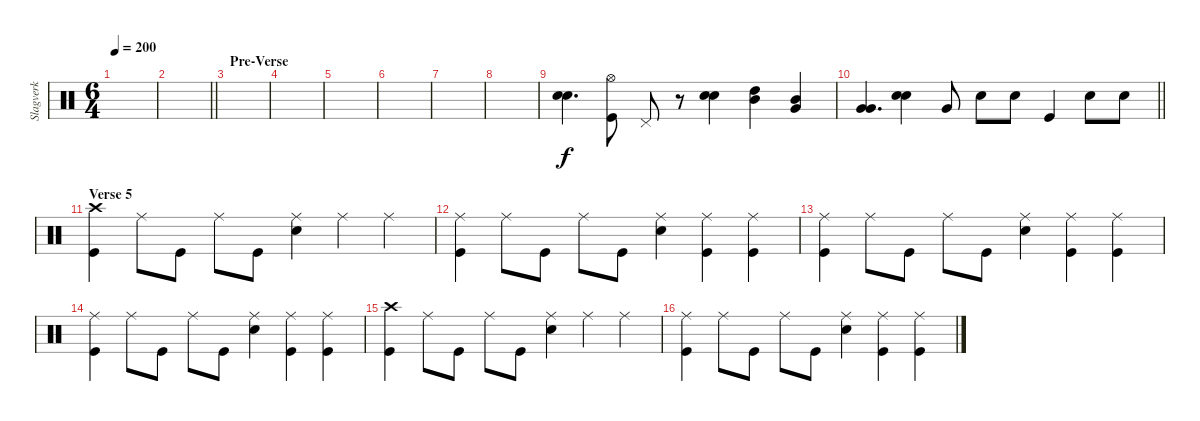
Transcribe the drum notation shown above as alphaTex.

\track ("Slagverk" "Slagverk") {instrument percussion}
\staff {score}
\articulation defaults
\ts (6 4)
\tempo 200
\clef neutral
\ks c
|
\barLineRight lightlight
|
\section ("" "Pre-Verse")
|
|
|
|
|
|
("Electric Snare (hit)" "Electric Snare (hit)").4{d} ("Hi-Hat (open)" "Kick (hit)").8 "Pedal Hi-Hat (hit)".8 r.8 ("Electric Snare (hit)" "Electric Snare (hit)").4 ("Mid Tom (hit)" "High Tom (hit)").4 ("Mid Tom (hit)" "Very Low Tom (hit)").4 |
\barLineRight lightlight
("Very Low Tom (hit)" "Very Low Tom (hit)").4{d} ("Electric Snare (hit)" "Electric Snare (hit)").4 "Very Low Tom (hit)".8 "Electric Snare (hit)".8 "Electric Snare (hit)".8 "Kick (hit)".4 "Electric Snare (hit)".8 "Electric Snare (hit)".8 |
\section ("" "Verse 5")
("Crash high (hit)" "Kick (hit)").4 "Ride (middle)".8 "Kick (hit)".8 "Ride (middle)".8 "Kick (hit)".8 ("Ride (middle)" "Electric Snare (hit)").4 "Ride (middle)".4 "Ride (middle)".4 |
("Ride (middle)" "Kick (hit)").4 "Ride (middle)".8 "Kick (hit)".8 "Ride (middle)".8 "Kick (hit)".8 ("Ride (middle)" "Electric Snare (hit)").4 ("Ride (middle)" "Kick (hit)").4 ("Ride (middle)" "Kick (hit)").4 |
("Ride (middle)" "Kick (hit)").4 "Ride (middle)".8 "Kick (hit)".8 "Ride (middle)".8 "Kick (hit)".8 ("Ride (middle)" "Electric Snare (hit)").4 ("Ride (middle)" "Kick (hit)").4 ("Ride (middle)" "Kick (hit)").4 |
("Ride (middle)" "Kick (hit)").4 "Ride (middle)".8 "Kick (hit)".8 "Ride (middle)".8 "Kick (hit)".8 ("Ride (middle)" "Electric Snare (hit)").4 ("Ride (middle)" "Kick (hit)").4 ("Ride (middle)" "Kick (hit)").4 |
("Crash high (hit)" "Kick (hit)").4 "Ride (middle)".8 "Kick (hit)".8 "Ride (middle)".8 "Kick (hit)".8 ("Ride (middle)" "Electric Snare (hit)").4 "Ride (middle)".4 "Ride (middle)".4 |
("Ride (middle)" "Kick (hit)").4 "Ride (middle)".8 "Kick (hit)".8 "Ride (middle)".8 "Kick (hit)".8 ("Ride (middle)" "Electric Snare (hit)").4 ("Ride (middle)" "Kick (hit)").4 ("Ride (middle)" "Kick (hit)").4
